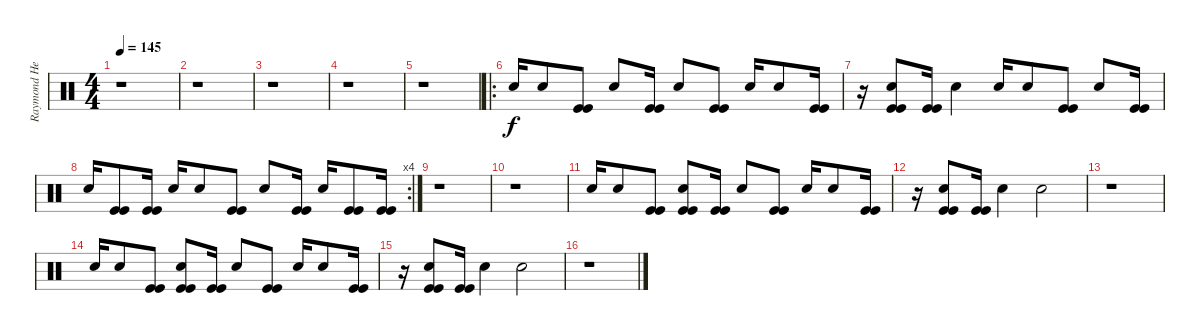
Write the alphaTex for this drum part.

\track ("Raymond Herrera" "Raymond He") {instrument percussion}
\staff {score}
\articulation defaults
\ts (4 4)
\tempo 145
\clef neutral
\ks c
r.1{dy f} |
r.1 |
r.1 |
r.1 |
r.1 |
\ro "Electric Snare (hit)".16 "Snare (hit) 2".8
("Kick (hit)" "Kick (hit)").8 "Electric Snare (hit)".8 ("Kick (hit)" "Kick (hit)").16 "Electric Snare (hit)".8 ("Kick (hit)" "Kick (hit)").8 "Electric Snare (hit)".16 "Snare (hit) 2".8 ("Kick (hit)" "Kick (hit)").16 |
r.16 ("Electric Snare (hit)" "Kick (hit)" "Kick (hit)").8 ("Kick (hit)" "Kick (hit)").16 "Electric Snare (hit)".4 "Electric Snare (hit)".16 "Snare (hit) 2".8 ("Kick (hit)" "Kick (hit)").8 "Electric Snare (hit)".8 ("Kick (hit)" "Kick (hit)").16 |
\rc 4 "Electric Snare (hit)".16
("Kick (hit)" "Kick (hit)").8 ("Kick (hit)" "Kick (hit)").16 "Electric Snare (hit)".16 "Snare (hit) 2".8 ("Kick (hit)" "Kick (hit)").8 "Electric Snare (hit)".8 ("Kick (hit)" "Kick (hit)").16 "Electric Snare (hit)".16 ("Kick (hit)" "Kick (hit)").8 ("Kick (hit)" "Kick (hit)").16 |
r.1 |
r.1 |
"Electric Snare (hit)".16 "Snare (hit) 2".8 ("Kick (hit)" "Kick (hit)").8 ("Electric Snare (hit)" "Kick (hit)" "Kick (hit)").8 ("Kick (hit)" "Kick (hit)").16 "Electric Snare (hit)".8 ("Kick (hit)" "Kick (hit)").8 "Electric Snare (hit)".16 "Snare (hit) 2".8 ("Kick (hit)" "Kick (hit)").16 |
r.16 ("Electric Snare (hit)" "Kick (hit)" "Kick (hit)").8 ("Kick (hit)" "Kick (hit)").16 "Electric Snare (hit)".4 "Electric Snare (hit)".2 |
r.1 |
"Electric Snare (hit)".16 "Snare (hit) 2".8 ("Kick (hit)" "Kick (hit)").8 ("Electric Snare (hit)" "Kick (hit)" "Kick (hit)").8 ("Kick (hit)" "Kick (hit)").16 "Electric Snare (hit)".8 ("Kick (hit)" "Kick (hit)").8 "Electric Snare (hit)".16 "Snare (hit) 2".8 ("Kick (hit)" "Kick (hit)").16 |
r.16 ("Electric Snare (hit)" "Kick (hit)" "Kick (hit)").8 ("Kick (hit)" "Kick (hit)").16 "Electric Snare (hit)".4 "Electric Snare (hit)".2 |
r.1
